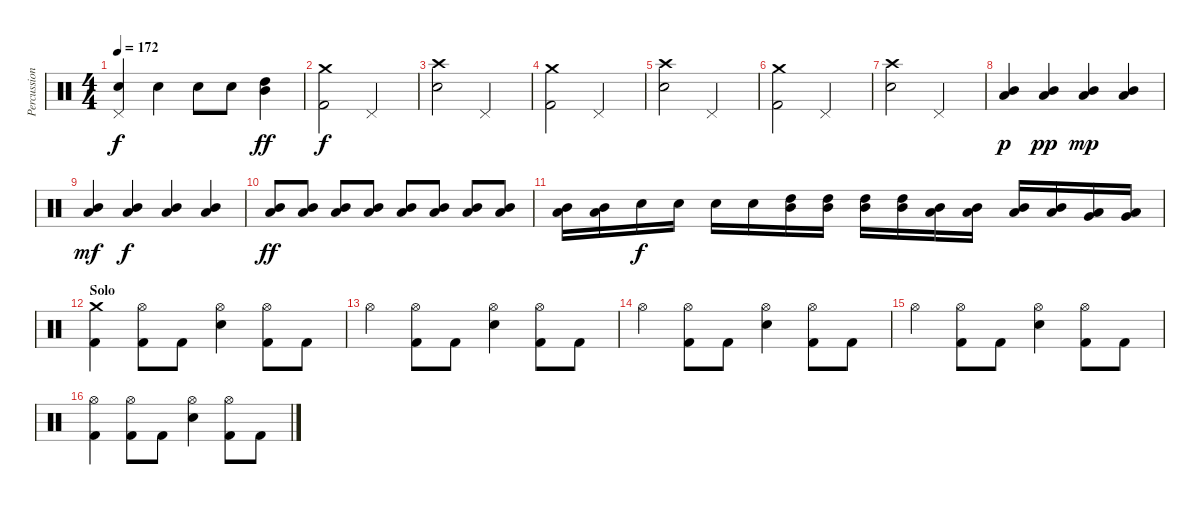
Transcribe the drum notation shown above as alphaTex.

\track ("Percussions" "Percussion") {instrument percussion}
\staff {score}
\articulation defaults
\ts (4 4)
\tempo 172
\clef neutral
\ks c
("Pedal Hi-Hat (hit)" "Snare (hit) 2").4{dy f} "Snare (hit) 2".4 "Snare (hit) 2".8 "Snare (hit) 2".8 ("Mid Tom (hit)" "High Tom (hit)").4{dy ff} |
("Crash medium (hit)" "Kick (hit) 2").2{dy f} "Pedal Hi-Hat (hit)".2 |
("Crash high (hit)" "Snare (hit) 2").2 "Pedal Hi-Hat (hit)".2 |
("Crash medium (hit)" "Kick (hit) 2").2 "Pedal Hi-Hat (hit)".2 |
("Crash high (hit)" "Snare (hit) 2").2 "Pedal Hi-Hat (hit)".2 |
("Crash medium (hit)" "Kick (hit) 2").2 "Pedal Hi-Hat (hit)".2 |
("Crash high (hit)" "Snare (hit) 2").2 "Pedal Hi-Hat (hit)".2 |
("Mid Tom (hit)" "Low Tom (hit)").4{dy p} ("Mid Tom (hit)" "Low Tom (hit)").4{dy pp} ("Mid Tom (hit)" "Low Tom (hit)").4{dy mp} ("Mid Tom (hit)" "Low Tom (hit)").4 |
("Mid Tom (hit)" "Low Tom (hit)").4{dy mf} ("Mid Tom (hit)" "Low Tom (hit)").4{dy f} ("Mid Tom (hit)" "Low Tom (hit)").4 ("Mid Tom (hit)" "Low Tom (hit)").4 |
("Mid Tom (hit)" "Low Tom (hit)").8{dy ff} ("Mid Tom (hit)" "Low Tom (hit)").8 ("Mid Tom (hit)" "Low Tom (hit)").8 ("Mid Tom (hit)" "Low Tom (hit)").8 ("Mid Tom (hit)" "Low Tom (hit)").8 ("Mid Tom (hit)" "Low Tom (hit)").8 ("Mid Tom (hit)" "Low Tom (hit)").8 ("Mid Tom (hit)" "Low Tom (hit)").8 |
("Mid Tom (hit)" "Low Tom (hit)").16 ("Mid Tom (hit)" "Low Tom (hit)").16 "Snare (hit) 2".16{dy f} "Snare (hit) 2".16 "Snare (hit) 2".16 "Snare (hit) 2".16 ("High Tom (hit)" "Mid Tom (hit)").16 ("High Tom (hit)" "Mid Tom (hit)").16 ("High Tom (hit)" "Mid Tom (hit)").16 ("High Tom (hit)" "Mid Tom (hit)").16 ("Mid Tom (hit)" "Low Tom (hit)").16 ("Mid Tom (hit)" "Low Tom (hit)").16 ("Mid Tom (hit)" "Low Tom (hit)").16 ("Mid Tom (hit)" "Low Tom (hit)").16 ("Low Tom (hit)" "Very Low Tom (hit)").16 ("Low Tom (hit)" "Very Low Tom (hit)").16 |
\section ("" "Solo")
("Crash medium (hit)" "Kick (hit) 2").4 ("Hi-Hat (open)" "Kick (hit) 2").8 "Kick (hit) 2".8 ("Hi-Hat (open)" "Snare (hit) 2").4 ("Hi-Hat (open)" "Kick (hit) 2").8 "Kick (hit) 2".8 |
"Hi-Hat (open)".4 ("Hi-Hat (open)" "Kick (hit) 2").8 "Kick (hit) 2".8 ("Hi-Hat (open)" "Snare (hit) 2").4 ("Hi-Hat (open)" "Kick (hit) 2").8 "Kick (hit) 2".8 |
"Hi-Hat (open)".4 ("Hi-Hat (open)" "Kick (hit) 2").8 "Kick (hit) 2".8 ("Hi-Hat (open)" "Snare (hit) 2").4 ("Hi-Hat (open)" "Kick (hit) 2").8 "Kick (hit) 2".8 |
"Hi-Hat (open)".4 ("Hi-Hat (open)" "Kick (hit) 2").8 "Kick (hit) 2".8 ("Hi-Hat (open)" "Snare (hit) 2").4 ("Hi-Hat (open)" "Kick (hit) 2").8 "Kick (hit) 2".8 |
("Hi-Hat (open)" "Kick (hit) 2").4 ("Hi-Hat (open)" "Kick (hit) 2").8 "Kick (hit) 2".8 ("Hi-Hat (open)" "Snare (hit) 2").4 ("Hi-Hat (open)" "Kick (hit) 2").8 "Kick (hit) 2".8
